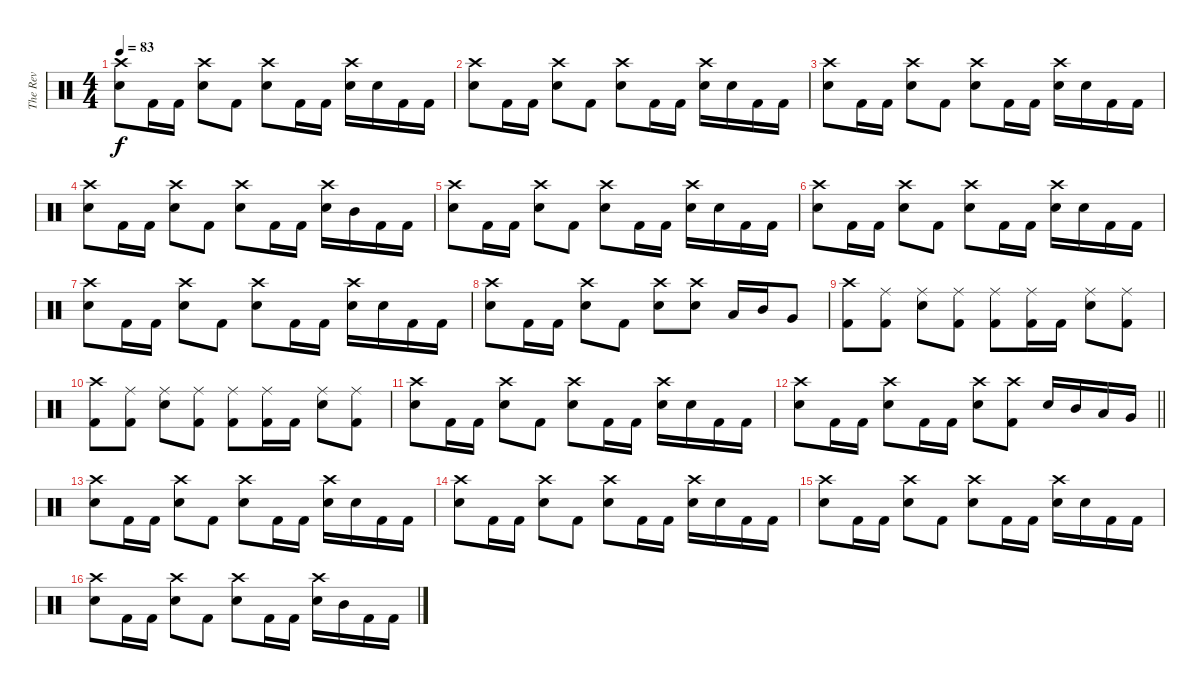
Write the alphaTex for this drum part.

\track ("The Rev" "The Rev") {instrument percussion}
\staff {score}
\articulation defaults
\ts (4 4)
\tempo 83
\clef neutral
\ks c
("Crash high (hit)" "Snare (hit) 2").8{dy f} "Kick (hit) 2".16 "Kick (hit) 2".16 ("Crash high (hit)" "Snare (hit) 2").8 "Kick (hit) 2".8 ("Crash high (hit)" "Snare (hit) 2").8 "Kick (hit) 2".16 "Kick (hit) 2".16 ("Crash high (hit)" "Snare (hit) 2").16 "Snare (hit) 2".16 "Kick (hit) 2".16 "Kick (hit) 2".16 |
("Crash high (hit)" "Snare (hit) 2").8 "Kick (hit) 2".16 "Kick (hit) 2".16 ("Crash high (hit)" "Snare (hit) 2").8 "Kick (hit) 2".8 ("Crash high (hit)" "Snare (hit) 2").8 "Kick (hit) 2".16 "Kick (hit) 2".16 ("Crash high (hit)" "Snare (hit) 2").16 "Snare (hit) 2".16 "Kick (hit) 2".16 "Kick (hit) 2".16 |
("Crash high (hit)" "Snare (hit) 2").8 "Kick (hit) 2".16 "Kick (hit) 2".16 ("Crash high (hit)" "Snare (hit) 2").8 "Kick (hit) 2".8 ("Crash high (hit)" "Snare (hit) 2").8 "Kick (hit) 2".16 "Kick (hit) 2".16 ("Crash high (hit)" "Snare (hit) 2").16 "Snare (hit) 2".16 "Kick (hit) 2".16 "Kick (hit) 2".16 |
("Crash high (hit)" "Snare (hit) 2").8 "Kick (hit) 2".16 "Kick (hit) 2".16 ("Crash high (hit)" "Snare (hit) 2").8 "Kick (hit) 2".8 ("Crash high (hit)" "Snare (hit) 2").8 "Kick (hit) 2".16 "Kick (hit) 2".16 ("Crash high (hit)" "Snare (hit) 2").16 "Mid Tom (hit)".16 "Kick (hit) 2".16 "Kick (hit) 2".16 |
("Crash high (hit)" "Snare (hit) 2").8 "Kick (hit) 2".16 "Kick (hit) 2".16 ("Crash high (hit)" "Snare (hit) 2").8 "Kick (hit) 2".8 ("Crash high (hit)" "Snare (hit) 2").8 "Kick (hit) 2".16 "Kick (hit) 2".16 ("Crash high (hit)" "Snare (hit) 2").16 "Snare (hit) 2".16 "Kick (hit) 2".16 "Kick (hit) 2".16 |
("Crash high (hit)" "Snare (hit) 2").8 "Kick (hit) 2".16 "Kick (hit) 2".16 ("Crash high (hit)" "Snare (hit) 2").8 "Kick (hit) 2".8 ("Crash high (hit)" "Snare (hit) 2").8 "Kick (hit) 2".16 "Kick (hit) 2".16 ("Crash high (hit)" "Snare (hit) 2").16 "Snare (hit) 2".16 "Kick (hit) 2".16 "Kick (hit) 2".16 |
("Crash high (hit)" "Snare (hit) 2").8 "Kick (hit) 2".16 "Kick (hit) 2".16 ("Crash high (hit)" "Snare (hit) 2").8 "Kick (hit) 2".8 ("Crash high (hit)" "Snare (hit) 2").8 "Kick (hit) 2".16 "Kick (hit) 2".16 ("Crash high (hit)" "Snare (hit) 2").16 "Snare (hit) 2".16 "Kick (hit) 2".16 "Kick (hit) 2".16 |
("Crash high (hit)" "Snare (hit) 2").8 "Kick (hit) 2".16 "Kick (hit) 2".16 ("Crash high (hit)" "Snare (hit) 2").8 "Kick (hit) 2".8 ("Crash high (hit)" "Snare (hit) 2").8 ("Crash high (hit)" "Snare (hit) 2").8 "Low Tom (hit)".16 "Mid Tom (hit)".16 "Very Low Tom (hit)".8 |
("Crash high (hit)" "Kick (hit) 2").8 ("Ride (middle)" "Kick (hit) 2").8 ("Ride (middle)" "Snare (hit) 2").8 ("Ride (middle)" "Kick (hit) 2").8 ("Ride (middle)" "Kick (hit) 2").8 ("Ride (middle)" "Kick (hit) 2").16 "Kick (hit) 2".16 ("Ride (middle)" "Snare (hit) 2").8 ("Ride (middle)" "Kick (hit) 2").8 |
("Crash high (hit)" "Kick (hit) 2").8 ("Ride (middle)" "Kick (hit) 2").8 ("Ride (middle)" "Snare (hit) 2").8 ("Ride (middle)" "Kick (hit) 2").8 ("Ride (middle)" "Kick (hit) 2").8 ("Ride (middle)" "Kick (hit) 2").16 "Kick (hit) 2".16 ("Ride (middle)" "Snare (hit) 2").8 ("Ride (middle)" "Kick (hit) 2").8 |
("Crash high (hit)" "Snare (hit) 2").8 "Kick (hit) 2".16 "Kick (hit) 2".16 ("Crash high (hit)" "Snare (hit) 2").8 "Kick (hit) 2".8 ("Crash high (hit)" "Snare (hit) 2").8 "Kick (hit) 2".16 "Kick (hit) 2".16 ("Crash high (hit)" "Snare (hit) 2").16 "Snare (hit) 2".16 "Kick (hit) 2".16 "Kick (hit) 2".16 |
\barLineRight lightlight
("Crash high (hit)" "Snare (hit) 2").8 "Kick (hit) 2".16 "Kick (hit) 2".16 ("Crash high (hit)" "Snare (hit) 2").8 "Kick (hit) 2".16 "Kick (hit) 2".16 ("Crash high (hit)" "Snare (hit) 2").8 ("Crash high (hit)" "Kick (hit) 2").8 "Snare (hit) 2".16 "Mid Tom (hit)".16 "Low Tom (hit)".16 "Very Low Tom (hit)".16 |
("Crash high (hit)" "Snare (hit) 2").8 "Kick (hit) 2".16 "Kick (hit) 2".16 ("Crash high (hit)" "Snare (hit) 2").8 "Kick (hit) 2".8 ("Crash high (hit)" "Snare (hit) 2").8 "Kick (hit) 2".16 "Kick (hit) 2".16 ("Crash high (hit)" "Snare (hit) 2").16 "Snare (hit) 2".16 "Kick (hit) 2".16 "Kick (hit) 2".16 |
("Crash high (hit)" "Snare (hit) 2").8 "Kick (hit) 2".16 "Kick (hit) 2".16 ("Crash high (hit)" "Snare (hit) 2").8 "Kick (hit) 2".8 ("Crash high (hit)" "Snare (hit) 2").8 "Kick (hit) 2".16 "Kick (hit) 2".16 ("Crash high (hit)" "Snare (hit) 2").16 "Snare (hit) 2".16 "Kick (hit) 2".16 "Kick (hit) 2".16 |
("Crash high (hit)" "Snare (hit) 2").8 "Kick (hit) 2".16 "Kick (hit) 2".16 ("Crash high (hit)" "Snare (hit) 2").8 "Kick (hit) 2".8 ("Crash high (hit)" "Snare (hit) 2").8 "Kick (hit) 2".16 "Kick (hit) 2".16 ("Crash high (hit)" "Snare (hit) 2").16 "Snare (hit) 2".16 "Kick (hit) 2".16 "Kick (hit) 2".16 |
("Crash high (hit)" "Snare (hit) 2").8 "Kick (hit) 2".16 "Kick (hit) 2".16 ("Crash high (hit)" "Snare (hit) 2").8 "Kick (hit) 2".8 ("Crash high (hit)" "Snare (hit) 2").8 "Kick (hit) 2".16 "Kick (hit) 2".16 ("Crash high (hit)" "Snare (hit) 2").16 "Mid Tom (hit)".16 "Kick (hit) 2".16 "Kick (hit) 2".16
